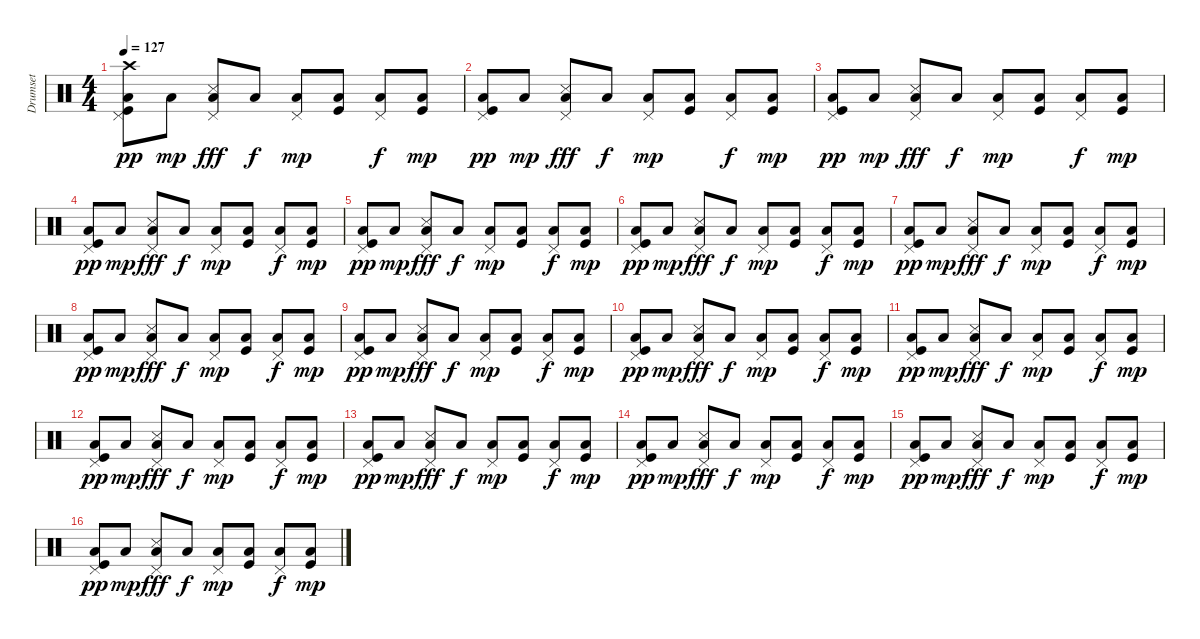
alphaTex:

\track ("Drumset" "Drumset") {instrument percussion}
\staff {score}
\articulation defaults
\ts (4 4)
\tempo 127
\clef neutral
\ks c
("Crash high (hit)" "Pedal Hi-Hat (hit)" "Low Floor Tom (hit)" "Kick (hit)").8{dy pp} "Low Floor Tom (hit)".8{dy mp} ("Pedal Hi-Hat (hit)" "Snare (side stick) 3" "Low Floor Tom (hit)").8{dy fff} "Low Floor Tom (hit)".8{dy f} ("Pedal Hi-Hat (hit)" "Low Floor Tom (hit)").8{dy mp} ("Low Floor Tom (hit)" "Kick (hit)").8 ("Pedal Hi-Hat (hit)" "Low Floor Tom (hit)").8{dy f} ("Low Floor Tom (hit)" "Kick (hit)").8{dy mp} |
("Pedal Hi-Hat (hit)" "Low Floor Tom (hit)" "Kick (hit)").8{dy pp} "Low Floor Tom (hit)".8{dy mp} ("Pedal Hi-Hat (hit)" "Snare (side stick) 3" "Low Floor Tom (hit)").8{dy fff} "Low Floor Tom (hit)".8{dy f} ("Pedal Hi-Hat (hit)" "Low Floor Tom (hit)").8{dy mp} ("Low Floor Tom (hit)" "Kick (hit)").8 ("Pedal Hi-Hat (hit)" "Low Floor Tom (hit)").8{dy f} ("Low Floor Tom (hit)" "Kick (hit)").8{dy mp} |
("Pedal Hi-Hat (hit)" "Low Floor Tom (hit)" "Kick (hit)").8{dy pp} "Low Floor Tom (hit)".8{dy mp} ("Pedal Hi-Hat (hit)" "Snare (side stick) 3" "Low Floor Tom (hit)").8{dy fff} "Low Floor Tom (hit)".8{dy f} ("Pedal Hi-Hat (hit)" "Low Floor Tom (hit)").8{dy mp} ("Low Floor Tom (hit)" "Kick (hit)").8 ("Pedal Hi-Hat (hit)" "Low Floor Tom (hit)").8{dy f} ("Low Floor Tom (hit)" "Kick (hit)").8{dy mp} |
("Pedal Hi-Hat (hit)" "Low Floor Tom (hit)" "Kick (hit)").8{dy pp} "Low Floor Tom (hit)".8{dy mp} ("Pedal Hi-Hat (hit)" "Snare (side stick) 3" "Low Floor Tom (hit)").8{dy fff} "Low Floor Tom (hit)".8{dy f} ("Pedal Hi-Hat (hit)" "Low Floor Tom (hit)").8{dy mp} ("Low Floor Tom (hit)" "Kick (hit)").8 ("Pedal Hi-Hat (hit)" "Low Floor Tom (hit)").8{dy f} ("Low Floor Tom (hit)" "Kick (hit)").8{dy mp} |
("Pedal Hi-Hat (hit)" "Low Floor Tom (hit)" "Kick (hit)").8{dy pp} "Low Floor Tom (hit)".8{dy mp} ("Pedal Hi-Hat (hit)" "Snare (side stick) 3" "Low Floor Tom (hit)").8{dy fff} "Low Floor Tom (hit)".8{dy f} ("Pedal Hi-Hat (hit)" "Low Floor Tom (hit)").8{dy mp} ("Low Floor Tom (hit)" "Kick (hit)").8 ("Pedal Hi-Hat (hit)" "Low Floor Tom (hit)").8{dy f} ("Low Floor Tom (hit)" "Kick (hit)").8{dy mp} |
("Pedal Hi-Hat (hit)" "Low Floor Tom (hit)" "Kick (hit)").8{dy pp} "Low Floor Tom (hit)".8{dy mp} ("Pedal Hi-Hat (hit)" "Snare (side stick) 3" "Low Floor Tom (hit)").8{dy fff} "Low Floor Tom (hit)".8{dy f} ("Pedal Hi-Hat (hit)" "Low Floor Tom (hit)").8{dy mp} ("Low Floor Tom (hit)" "Kick (hit)").8 ("Pedal Hi-Hat (hit)" "Low Floor Tom (hit)").8{dy f} ("Low Floor Tom (hit)" "Kick (hit)").8{dy mp} |
("Pedal Hi-Hat (hit)" "Low Floor Tom (hit)" "Kick (hit)").8{dy pp} "Low Floor Tom (hit)".8{dy mp} ("Pedal Hi-Hat (hit)" "Snare (side stick) 3" "Low Floor Tom (hit)").8{dy fff} "Low Floor Tom (hit)".8{dy f} ("Pedal Hi-Hat (hit)" "Low Floor Tom (hit)").8{dy mp} ("Low Floor Tom (hit)" "Kick (hit)").8 ("Pedal Hi-Hat (hit)" "Low Floor Tom (hit)").8{dy f} ("Low Floor Tom (hit)" "Kick (hit)").8{dy mp} |
("Pedal Hi-Hat (hit)" "Low Floor Tom (hit)" "Kick (hit)").8{dy pp} "Low Floor Tom (hit)".8{dy mp} ("Pedal Hi-Hat (hit)" "Snare (side stick) 3" "Low Floor Tom (hit)").8{dy fff} "Low Floor Tom (hit)".8{dy f} ("Pedal Hi-Hat (hit)" "Low Floor Tom (hit)").8{dy mp} ("Low Floor Tom (hit)" "Kick (hit)").8 ("Pedal Hi-Hat (hit)" "Low Floor Tom (hit)").8{dy f} ("Low Floor Tom (hit)" "Kick (hit)").8{dy mp} |
("Pedal Hi-Hat (hit)" "Low Floor Tom (hit)" "Kick (hit)").8{dy pp} "Low Floor Tom (hit)".8{dy mp} ("Pedal Hi-Hat (hit)" "Snare (side stick) 3" "Low Floor Tom (hit)").8{dy fff} "Low Floor Tom (hit)".8{dy f} ("Pedal Hi-Hat (hit)" "Low Floor Tom (hit)").8{dy mp} ("Low Floor Tom (hit)" "Kick (hit)").8 ("Pedal Hi-Hat (hit)" "Low Floor Tom (hit)").8{dy f} ("Low Floor Tom (hit)" "Kick (hit)").8{dy mp} |
("Pedal Hi-Hat (hit)" "Low Floor Tom (hit)" "Kick (hit)").8{dy pp} "Low Floor Tom (hit)".8{dy mp} ("Pedal Hi-Hat (hit)" "Snare (side stick) 3" "Low Floor Tom (hit)").8{dy fff} "Low Floor Tom (hit)".8{dy f} ("Pedal Hi-Hat (hit)" "Low Floor Tom (hit)").8{dy mp} ("Low Floor Tom (hit)" "Kick (hit)").8 ("Pedal Hi-Hat (hit)" "Low Floor Tom (hit)").8{dy f} ("Low Floor Tom (hit)" "Kick (hit)").8{dy mp} |
("Pedal Hi-Hat (hit)" "Low Floor Tom (hit)" "Kick (hit)").8{dy pp} "Low Floor Tom (hit)".8{dy mp} ("Pedal Hi-Hat (hit)" "Snare (side stick) 3" "Low Floor Tom (hit)").8{dy fff} "Low Floor Tom (hit)".8{dy f} ("Pedal Hi-Hat (hit)" "Low Floor Tom (hit)").8{dy mp} ("Low Floor Tom (hit)" "Kick (hit)").8 ("Pedal Hi-Hat (hit)" "Low Floor Tom (hit)").8{dy f} ("Low Floor Tom (hit)" "Kick (hit)").8{dy mp} |
("Pedal Hi-Hat (hit)" "Low Floor Tom (hit)" "Kick (hit)").8{dy pp} "Low Floor Tom (hit)".8{dy mp} ("Pedal Hi-Hat (hit)" "Snare (side stick) 3" "Low Floor Tom (hit)").8{dy fff} "Low Floor Tom (hit)".8{dy f} ("Pedal Hi-Hat (hit)" "Low Floor Tom (hit)").8{dy mp} ("Low Floor Tom (hit)" "Kick (hit)").8 ("Pedal Hi-Hat (hit)" "Low Floor Tom (hit)").8{dy f} ("Low Floor Tom (hit)" "Kick (hit)").8{dy mp} |
("Pedal Hi-Hat (hit)" "Low Floor Tom (hit)" "Kick (hit)").8{dy pp} "Low Floor Tom (hit)".8{dy mp} ("Pedal Hi-Hat (hit)" "Snare (side stick) 3" "Low Floor Tom (hit)").8{dy fff} "Low Floor Tom (hit)".8{dy f} ("Pedal Hi-Hat (hit)" "Low Floor Tom (hit)").8{dy mp} ("Low Floor Tom (hit)" "Kick (hit)").8 ("Pedal Hi-Hat (hit)" "Low Floor Tom (hit)").8{dy f} ("Low Floor Tom (hit)" "Kick (hit)").8{dy mp} |
("Pedal Hi-Hat (hit)" "Low Floor Tom (hit)" "Kick (hit)").8{dy pp} "Low Floor Tom (hit)".8{dy mp} ("Pedal Hi-Hat (hit)" "Snare (side stick) 3" "Low Floor Tom (hit)").8{dy fff} "Low Floor Tom (hit)".8{dy f} ("Pedal Hi-Hat (hit)" "Low Floor Tom (hit)").8{dy mp} ("Low Floor Tom (hit)" "Kick (hit)").8 ("Pedal Hi-Hat (hit)" "Low Floor Tom (hit)").8{dy f} ("Low Floor Tom (hit)" "Kick (hit)").8{dy mp} |
("Pedal Hi-Hat (hit)" "Low Floor Tom (hit)" "Kick (hit)").8{dy pp} "Low Floor Tom (hit)".8{dy mp} ("Pedal Hi-Hat (hit)" "Snare (side stick) 3" "Low Floor Tom (hit)").8{dy fff} "Low Floor Tom (hit)".8{dy f} ("Pedal Hi-Hat (hit)" "Low Floor Tom (hit)").8{dy mp} ("Low Floor Tom (hit)" "Kick (hit)").8 ("Pedal Hi-Hat (hit)" "Low Floor Tom (hit)").8{dy f} ("Low Floor Tom (hit)" "Kick (hit)").8{dy mp} |
("Pedal Hi-Hat (hit)" "Low Floor Tom (hit)" "Kick (hit)").8{dy pp} "Low Floor Tom (hit)".8{dy mp} ("Pedal Hi-Hat (hit)" "Snare (side stick) 3" "Low Floor Tom (hit)").8{dy fff} "Low Floor Tom (hit)".8{dy f} ("Pedal Hi-Hat (hit)" "Low Floor Tom (hit)").8{dy mp} ("Low Floor Tom (hit)" "Kick (hit)").8 ("Pedal Hi-Hat (hit)" "Low Floor Tom (hit)").8{dy f} ("Low Floor Tom (hit)" "Kick (hit)").8{dy mp}
